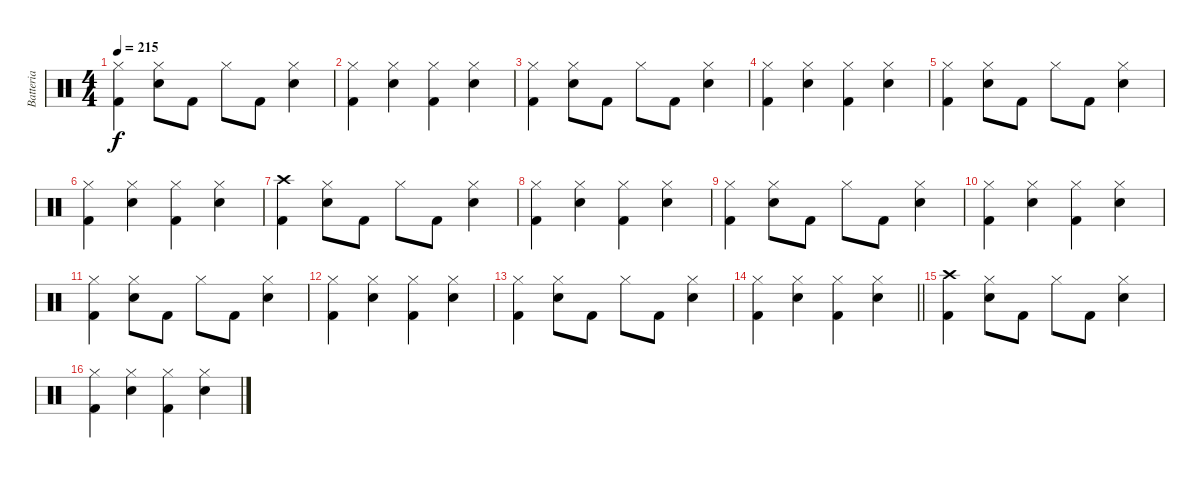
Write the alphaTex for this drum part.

\track ("Batteria" "Batteria") {instrument percussion}
\staff {score}
\articulation defaults
\ts (4 4)
\tempo 215
\clef neutral
\ks c
("Hi-Hat (closed)" "Kick (hit) 2").4{dy f} ("Hi-Hat (closed)" "Electric Snare (hit)").8 "Kick (hit) 2".8 "Hi-Hat (closed)".8 "Kick (hit) 2".8 ("Hi-Hat (closed)" "Electric Snare (hit)").4 |
("Hi-Hat (closed)" "Kick (hit) 2").4 ("Hi-Hat (closed)" "Electric Snare (hit)").4 ("Hi-Hat (closed)" "Kick (hit) 2").4 ("Hi-Hat (closed)" "Electric Snare (hit)").4 |
("Hi-Hat (closed)" "Kick (hit) 2").4 ("Hi-Hat (closed)" "Electric Snare (hit)").8 "Kick (hit) 2".8 "Hi-Hat (closed)".8 "Kick (hit) 2".8 ("Hi-Hat (closed)" "Electric Snare (hit)").4 |
("Hi-Hat (closed)" "Kick (hit) 2").4 ("Hi-Hat (closed)" "Electric Snare (hit)").4 ("Hi-Hat (closed)" "Kick (hit) 2").4 ("Hi-Hat (closed)" "Electric Snare (hit)").4 |
("Hi-Hat (closed)" "Kick (hit) 2").4 ("Hi-Hat (closed)" "Electric Snare (hit)").8 "Kick (hit) 2".8 "Hi-Hat (closed)".8 "Kick (hit) 2".8 ("Hi-Hat (closed)" "Electric Snare (hit)").4 |
("Hi-Hat (closed)" "Kick (hit) 2").4 ("Hi-Hat (closed)" "Electric Snare (hit)").4 ("Hi-Hat (closed)" "Kick (hit) 2").4 ("Hi-Hat (closed)" "Electric Snare (hit)").4 |
("Crash high (hit)" "Kick (hit) 2").4 ("Hi-Hat (closed)" "Electric Snare (hit)").8 "Kick (hit) 2".8 "Hi-Hat (closed)".8 "Kick (hit) 2".8 ("Hi-Hat (closed)" "Electric Snare (hit)").4 |
("Hi-Hat (closed)" "Kick (hit) 2").4 ("Hi-Hat (closed)" "Electric Snare (hit)").4 ("Hi-Hat (closed)" "Kick (hit) 2").4 ("Hi-Hat (closed)" "Electric Snare (hit)").4 |
("Hi-Hat (closed)" "Kick (hit) 2").4 ("Hi-Hat (closed)" "Electric Snare (hit)").8 "Kick (hit) 2".8 "Hi-Hat (closed)".8 "Kick (hit) 2".8 ("Hi-Hat (closed)" "Electric Snare (hit)").4 |
("Hi-Hat (closed)" "Kick (hit) 2").4 ("Hi-Hat (closed)" "Electric Snare (hit)").4 ("Hi-Hat (closed)" "Kick (hit) 2").4 ("Hi-Hat (closed)" "Electric Snare (hit)").4 |
("Hi-Hat (closed)" "Kick (hit) 2").4 ("Hi-Hat (closed)" "Electric Snare (hit)").8 "Kick (hit) 2".8 "Hi-Hat (closed)".8 "Kick (hit) 2".8 ("Hi-Hat (closed)" "Electric Snare (hit)").4 |
("Hi-Hat (closed)" "Kick (hit) 2").4 ("Hi-Hat (closed)" "Electric Snare (hit)").4 ("Hi-Hat (closed)" "Kick (hit) 2").4 ("Hi-Hat (closed)" "Electric Snare (hit)").4 |
("Hi-Hat (closed)" "Kick (hit) 2").4 ("Hi-Hat (closed)" "Electric Snare (hit)").8 "Kick (hit) 2".8 "Hi-Hat (closed)".8 "Kick (hit) 2".8 ("Hi-Hat (closed)" "Electric Snare (hit)").4 |
\barLineRight lightlight
("Hi-Hat (closed)" "Kick (hit) 2").4 ("Hi-Hat (closed)" "Electric Snare (hit)").4 ("Hi-Hat (closed)" "Kick (hit) 2").4 ("Hi-Hat (closed)" "Electric Snare (hit)").4 |
("Crash high (hit)" "Kick (hit) 2").4 ("Hi-Hat (closed)" "Electric Snare (hit)").8 "Kick (hit) 2".8 "Hi-Hat (closed)".8 "Kick (hit) 2".8 ("Hi-Hat (closed)" "Electric Snare (hit)").4 |
("Hi-Hat (closed)" "Kick (hit) 2").4 ("Hi-Hat (closed)" "Electric Snare (hit)").4 ("Hi-Hat (closed)" "Kick (hit) 2").4 ("Hi-Hat (closed)" "Electric Snare (hit)").4
